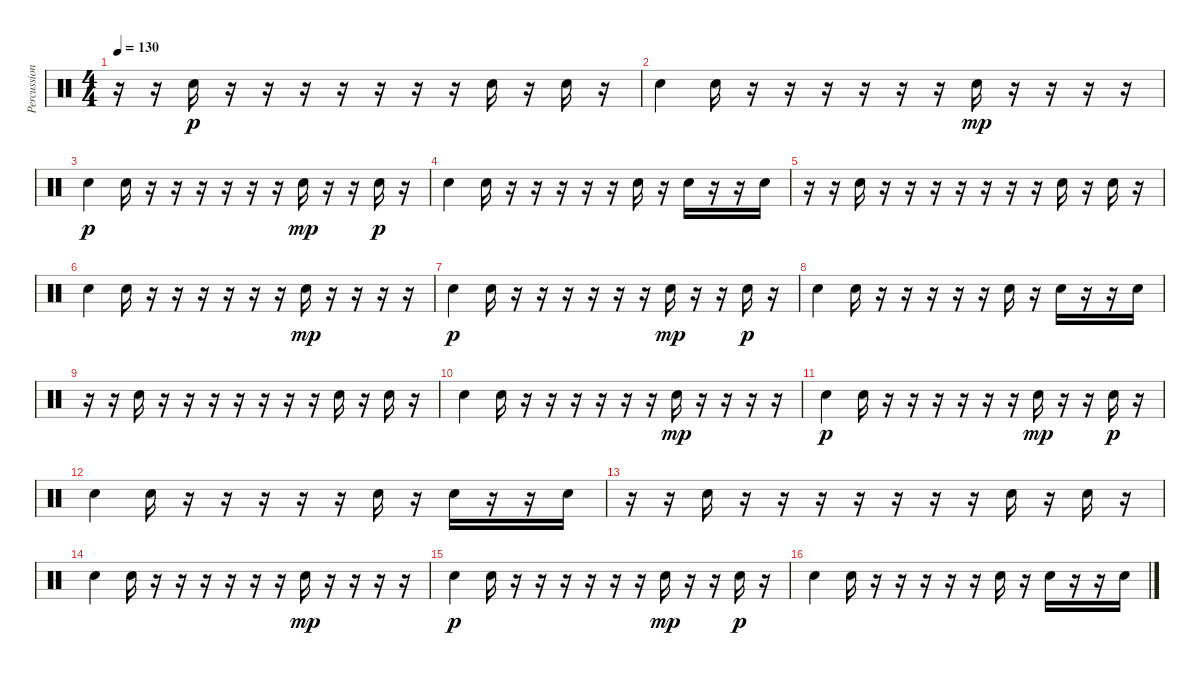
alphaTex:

\track ("Percussion" "Percussion") {instrument percussion}
\staff {score}
\articulation defaults
\ts (4 4)
\tempo 130
\clef neutral
\ks c
r.16{dy p} r.16 "Snare (hit) 2".16 r.16 r.16 r.16 r.16 r.16 r.16 r.16 "Snare (hit) 2".16 r.16 "Snare (hit) 2".16 r.16 |
"Snare (hit) 2".4 "Snare (hit) 2".16 r.16 r.16 r.16 r.16 r.16 r.16 "Hand Clap (hit)".16{dy mp} r.16 r.16 r.16 r.16 |
"Snare (hit) 2".4{dy p} "Snare (hit) 2".16 r.16 r.16 r.16 r.16 r.16 r.16 "Hand Clap (hit)".16{dy mp} r.16 r.16 "Snare (hit) 2".16{dy p} r.16 |
"Snare (hit) 2".4 "Snare (hit) 2".16 r.16 r.16 r.16 r.16 r.16 "Snare (hit) 2".16 r.16 "Snare (hit) 2".16 r.16 r.16 "Snare (hit) 2".16 |
r.16 r.16 "Snare (hit) 2".16 r.16 r.16 r.16 r.16 r.16 r.16 r.16 "Snare (hit) 2".16 r.16 "Snare (hit) 2".16 r.16 |
"Snare (hit) 2".4 "Snare (hit) 2".16 r.16 r.16 r.16 r.16 r.16 r.16 "Hand Clap (hit)".16{dy mp} r.16 r.16 r.16 r.16 |
"Snare (hit) 2".4{dy p} "Snare (hit) 2".16 r.16 r.16 r.16 r.16 r.16 r.16 "Hand Clap (hit)".16{dy mp} r.16 r.16 "Snare (hit) 2".16{dy p} r.16 |
"Snare (hit) 2".4 "Snare (hit) 2".16 r.16 r.16 r.16 r.16 r.16 "Snare (hit) 2".16 r.16 "Snare (hit) 2".16 r.16 r.16 "Snare (hit) 2".16 |
r.16 r.16 "Snare (hit) 2".16 r.16 r.16 r.16 r.16 r.16 r.16 r.16 "Snare (hit) 2".16 r.16 "Snare (hit) 2".16 r.16 |
"Snare (hit) 2".4 "Snare (hit) 2".16 r.16 r.16 r.16 r.16 r.16 r.16 "Hand Clap (hit)".16{dy mp} r.16 r.16 r.16 r.16 |
"Snare (hit) 2".4{dy p} "Snare (hit) 2".16 r.16 r.16 r.16 r.16 r.16 r.16 "Hand Clap (hit)".16{dy mp} r.16 r.16 "Snare (hit) 2".16{dy p} r.16 |
"Snare (hit) 2".4 "Snare (hit) 2".16 r.16 r.16 r.16 r.16 r.16 "Snare (hit) 2".16 r.16 "Snare (hit) 2".16 r.16 r.16 "Snare (hit) 2".16 |
r.16 r.16 "Snare (hit) 2".16 r.16 r.16 r.16 r.16 r.16 r.16 r.16 "Snare (hit) 2".16 r.16 "Snare (hit) 2".16 r.16 |
"Snare (hit) 2".4 "Snare (hit) 2".16 r.16 r.16 r.16 r.16 r.16 r.16 "Hand Clap (hit)".16{dy mp} r.16 r.16 r.16 r.16 |
"Snare (hit) 2".4{dy p} "Snare (hit) 2".16 r.16 r.16 r.16 r.16 r.16 r.16 "Hand Clap (hit)".16{dy mp} r.16 r.16 "Snare (hit) 2".16{dy p} r.16 |
"Snare (hit) 2".4 "Snare (hit) 2".16 r.16 r.16 r.16 r.16 r.16 "Snare (hit) 2".16 r.16 "Snare (hit) 2".16 r.16 r.16 "Snare (hit) 2".16
